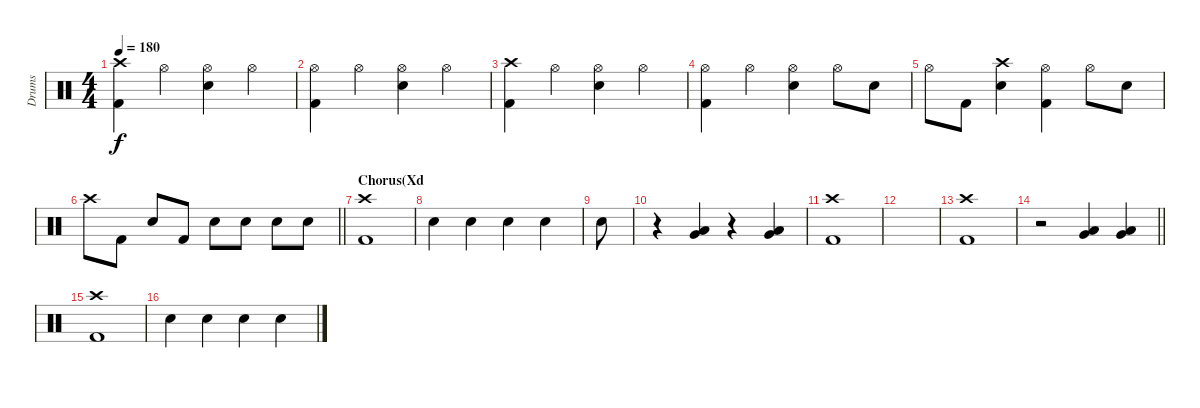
\track ("Drums" "Drums") {instrument percussion}
\staff {score}
\articulation defaults
\ts (4 4)
\tempo 180
\clef neutral
\ks c
("Crash high (hit)" "Kick (hit) 2").4{dy f} "Hi-Hat (open)".4 ("Hi-Hat (open)" "Electric Snare (hit)").4 "Hi-Hat (open)".4 |
("Hi-Hat (open)" "Kick (hit) 2").4 "Hi-Hat (open)".4 ("Hi-Hat (open)" "Electric Snare (hit)").4 "Hi-Hat (open)".4 |
("Crash high (hit)" "Kick (hit) 2").4 "Hi-Hat (open)".4 ("Hi-Hat (open)" "Electric Snare (hit)").4 "Hi-Hat (open)".4 |
("Hi-Hat (open)" "Kick (hit) 2").4 "Hi-Hat (open)".4 ("Hi-Hat (open)" "Electric Snare (hit)").4 "Hi-Hat (open)".8 "Electric Snare (hit)".8 |
"Hi-Hat (open)".8 "Kick (hit) 2".8 ("Crash high (hit)" "Electric Snare (hit)").4 ("Hi-Hat (open)" "Kick (hit) 2").4 "Hi-Hat (open)".8 "Electric Snare (hit)".8 |
\barLineRight lightlight "Crash high (hit)".8 "Kick (hit) 2".8 "Electric Snare (hit)".8 "Kick (hit) 2".8 "Electric Snare (hit)".8 "Electric Snare (hit)".8 "Electric Snare (hit)".8 "Electric Snare (hit)".8
|
\section ("" "Chorus(Xd")
("Crash high (hit)" "Kick (hit) 2").1 |
"Electric Snare (hit)".4 "Electric Snare (hit)".4 "Electric Snare (hit)".4 "Electric Snare (hit)".4 |
"Electric Snare (hit)".8 |
r.4 ("Low Tom (hit)" "Very Low Tom (hit)").4 r.4 ("Low Floor Tom (hit)" "Very Low Tom (hit)").4 |
("Crash high (hit)" "Kick (hit) 2").1 |
|
("Crash high (hit)" "Kick (hit) 2").1 |
\barLineRight lightlight
r.2 ("Low Floor Tom (hit)" "Very Low Tom (hit)").4 ("Low Floor Tom (hit)" "Very Low Tom (hit)").4 |
("Crash high (hit)" "Kick (hit) 2").1 |
"Electric Snare (hit)".4 "Electric Snare (hit)".4 "Electric Snare (hit)".4 "Electric Snare (hit)".4
